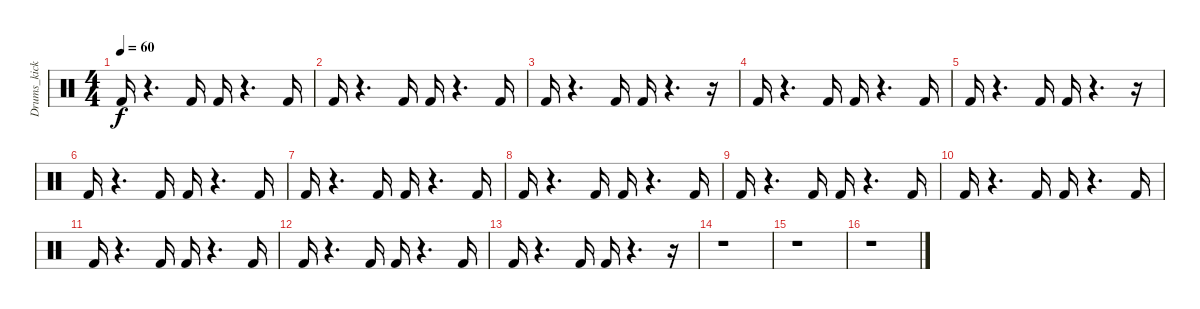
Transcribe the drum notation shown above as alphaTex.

\track ("Drums_kick" "Drums_kick") {instrument percussion}
\staff {score}
\articulation defaults
\ts (4 4)
\tempo 60
\clef neutral
\ks c "Kick (hit) 2".16{dy f}
r.4{d} "Kick (hit) 2".16 "Kick (hit) 2".16 r.4{d} "Kick (hit) 2".16 |
"Kick (hit) 2".16 r.4{d} "Kick (hit) 2".16 "Kick (hit) 2".16 r.4{d} "Kick (hit) 2".16 |
"Kick (hit) 2".16 r.4{d} "Kick (hit) 2".16 "Kick (hit) 2".16 r.4{d} r.16 |
"Kick (hit) 2".16 r.4{d} "Kick (hit) 2".16 "Kick (hit) 2".16 r.4{d} "Kick (hit) 2".16 |
"Kick (hit) 2".16 r.4{d} "Kick (hit) 2".16 "Kick (hit) 2".16 r.4{d} r.16 |
"Kick (hit) 2".16 r.4{d} "Kick (hit) 2".16 "Kick (hit) 2".16 r.4{d} "Kick (hit) 2".16 |
"Kick (hit) 2".16 r.4{d} "Kick (hit) 2".16 "Kick (hit) 2".16 r.4{d} "Kick (hit) 2".16 |
"Kick (hit) 2".16 r.4{d} "Kick (hit) 2".16 "Kick (hit) 2".16 r.4{d} "Kick (hit) 2".16 |
"Kick (hit) 2".16 r.4{d} "Kick (hit) 2".16 "Kick (hit) 2".16 r.4{d} "Kick (hit) 2".16 |
"Kick (hit) 2".16 r.4{d} "Kick (hit) 2".16 "Kick (hit) 2".16 r.4{d} "Kick (hit) 2".16 |
"Kick (hit) 2".16 r.4{d} "Kick (hit) 2".16 "Kick (hit) 2".16 r.4{d} "Kick (hit) 2".16 |
"Kick (hit) 2".16 r.4{d} "Kick (hit) 2".16 "Kick (hit) 2".16 r.4{d} "Kick (hit) 2".16 |
"Kick (hit) 2".16 r.4{d} "Kick (hit) 2".16 "Kick (hit) 2".16 r.4{d} r.16 |
r.1 |
r.1 |
r.1
